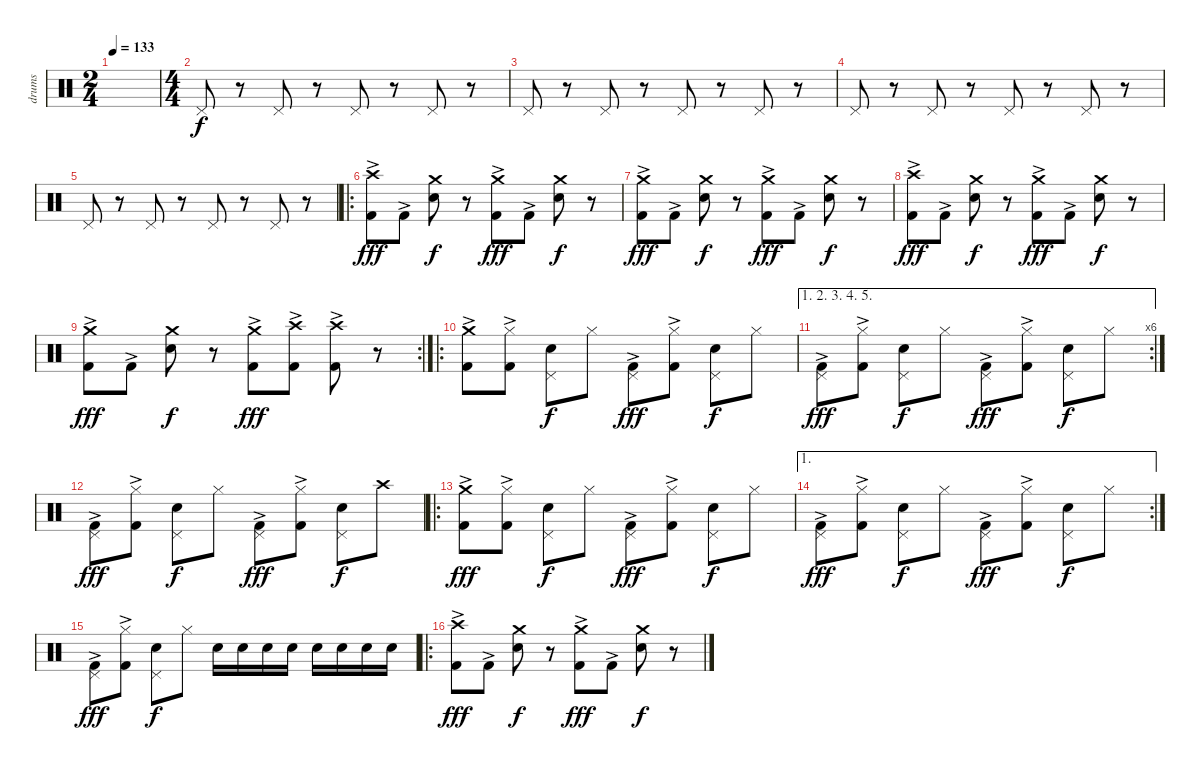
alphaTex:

\track ("drums" "drums") {instrument percussion}
\staff {score}
\articulation defaults
\ts (2 4)
\tempo 133
\clef neutral
\ks c
|
\ts (4 4)
"Pedal Hi-Hat (hit)".8 r.8 "Pedal Hi-Hat (hit)".8 r.8 "Pedal Hi-Hat (hit)".8 r.8 "Pedal Hi-Hat (hit)".8 r.8 |
"Pedal Hi-Hat (hit)".8 r.8 "Pedal Hi-Hat (hit)".8 r.8 "Pedal Hi-Hat (hit)".8 r.8 "Pedal Hi-Hat (hit)".8 r.8 |
"Pedal Hi-Hat (hit)".8 r.8 "Pedal Hi-Hat (hit)".8 r.8 "Pedal Hi-Hat (hit)".8 r.8 "Pedal Hi-Hat (hit)".8 r.8 |
"Pedal Hi-Hat (hit)".8 r.8 "Pedal Hi-Hat (hit)".8 r.8 "Pedal Hi-Hat (hit)".8 r.8 "Pedal Hi-Hat (hit)".8 r.8 |
\ro
("Kick (hit) 2"{ac} "Crash high (hit)").8{dy fff} "Kick (hit) 2"{ac}.8 ("Crash medium (hit)" "Snare (hit) 2").8{dy f} r.8 ("Kick (hit) 2"{ac} "Crash medium (hit)").8{dy fff} "Kick (hit) 2"{ac}.8 ("Crash medium (hit)" "Snare (hit) 2").8{dy f} r.8 |
("Kick (hit) 2"{ac} "Crash medium (hit)").8{dy fff} "Kick (hit) 2"{ac}.8 ("Crash medium (hit)" "Snare (hit) 2").8{dy f} r.8 ("Kick (hit) 2"{ac} "Crash medium (hit)").8{dy fff} "Kick (hit) 2"{ac}.8 ("Crash medium (hit)" "Snare (hit) 2").8{dy f} r.8 |
("Kick (hit) 2"{ac} "Crash high (hit)").8{dy fff} "Kick (hit) 2"{ac}.8 ("Crash medium (hit)" "Snare (hit) 2").8{dy f} r.8 ("Kick (hit) 2"{ac} "Crash medium (hit)").8{dy fff} "Kick (hit) 2"{ac}.8 ("Crash medium (hit)" "Snare (hit) 2").8{dy f} r.8 |
\rc 2
("Kick (hit) 2"{ac} "Crash medium (hit)").8{dy fff} "Kick (hit) 2"{ac}.8 ("Crash medium (hit)" "Snare (hit) 2").8{dy f} r.8 ("Kick (hit) 2"{ac} "Crash medium (hit)").8{dy fff} ("Kick (hit) 2"{ac} "Crash high (hit)").8 ("Kick (hit) 2"{ac} "Crash high (hit)").8 r.8 |
\ro
("Kick (hit) 2"{ac} "Crash medium (hit)").8 ("Kick (hit) 2"{ac} "Hi-Hat (closed)").8 ("Pedal Hi-Hat (hit)" "Snare (hit) 2").8{dy f} "Hi-Hat (closed)".8 ("Kick (hit) 2"{ac} "Pedal Hi-Hat (hit)").8{dy fff} ("Kick (hit) 2"{ac} "Hi-Hat (closed)").8 ("Pedal Hi-Hat (hit)" "Snare (hit) 2").8{dy f} "Hi-Hat (closed)".8 |
\ae (1 2 3 4 5)
\rc 6
("Kick (hit) 2"{ac} "Pedal Hi-Hat (hit)").8{dy fff} ("Kick (hit) 2"{ac} "Hi-Hat (closed)").8 ("Pedal Hi-Hat (hit)" "Snare (hit) 2").8{dy f} "Hi-Hat (closed)".8 ("Kick (hit) 2"{ac} "Pedal Hi-Hat (hit)").8{dy fff} ("Kick (hit) 2"{ac} "Hi-Hat (closed)").8 ("Pedal Hi-Hat (hit)" "Snare (hit) 2").8{dy f} "Hi-Hat (closed)".8 |
("Kick (hit) 2"{ac} "Pedal Hi-Hat (hit)").8{dy fff} ("Kick (hit) 2"{ac} "Hi-Hat (closed)").8 ("Pedal Hi-Hat (hit)" "Snare (hit) 2").8{dy f} "Hi-Hat (closed)".8 ("Kick (hit) 2"{ac} "Pedal Hi-Hat (hit)").8{dy fff} ("Kick (hit) 2"{ac} "Hi-Hat (closed)").8 ("Pedal Hi-Hat (hit)" "Snare (hit) 2").8{dy f} "Crash high (hit)".8 |
\ro
("Kick (hit) 2"{ac} "Crash medium (hit)").8{dy fff} ("Kick (hit) 2"{ac} "Hi-Hat (closed)").8 ("Pedal Hi-Hat (hit)" "Snare (hit) 2").8{dy f} "Hi-Hat (closed)".8 ("Kick (hit) 2"{ac} "Pedal Hi-Hat (hit)").8{dy fff} ("Kick (hit) 2"{ac} "Hi-Hat (closed)").8 ("Pedal Hi-Hat (hit)" "Snare (hit) 2").8{dy f} "Hi-Hat (closed)".8 |
\ae 1
\rc 2
("Kick (hit) 2"{ac} "Pedal Hi-Hat (hit)").8{dy fff} ("Kick (hit) 2"{ac} "Hi-Hat (closed)").8 ("Pedal Hi-Hat (hit)" "Snare (hit) 2").8{dy f} "Hi-Hat (closed)".8 ("Kick (hit) 2"{ac} "Pedal Hi-Hat (hit)").8{dy fff} ("Kick (hit) 2"{ac} "Hi-Hat (closed)").8 ("Pedal Hi-Hat (hit)" "Snare (hit) 2").8{dy f} "Hi-Hat (closed)".8 |
("Kick (hit) 2"{ac} "Pedal Hi-Hat (hit)").8{dy fff} ("Kick (hit) 2"{ac} "Hi-Hat (closed)").8 ("Pedal Hi-Hat (hit)" "Snare (hit) 2").8{dy f} "Hi-Hat (closed)".8 "Snare (hit) 2".16 "Snare (hit) 2".16 "Snare (hit) 2".16 "Snare (hit) 2".16 "Snare (hit) 2".16 "Snare (hit) 2".16 "Snare (hit) 2".16 "Snare (hit) 2".16 |
\ro
("Kick (hit) 2"{ac} "Crash high (hit)").8{dy fff} "Kick (hit) 2"{ac}.8 ("Crash medium (hit)" "Snare (hit) 2").8{dy f} r.8 ("Kick (hit) 2"{ac} "Crash medium (hit)").8{dy fff} "Kick (hit) 2"{ac}.8 ("Crash medium (hit)" "Snare (hit) 2").8{dy f} r.8
